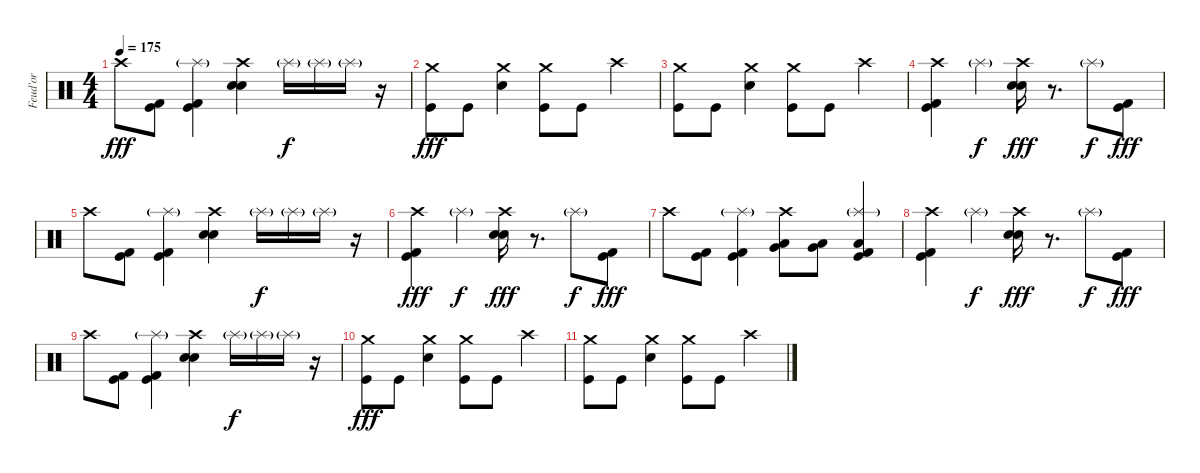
\track ("Feud'or" "Feud'or") {instrument percussion}
\staff {score}
\articulation defaults
\ts (4 4)
\tempo 175
\clef neutral
\ks c "Crash high (hit)".8{dy fff}
("Kick (hit) 2" "Kick (hit)").8 ("Splash (hit)"{g} "Kick (hit) 2" "Kick (hit)").4 ("Crash high (hit)" "Electric Snare (hit)" "Snare (hit) 2").4 "Splash (hit)"{g}.16{dy f} "Splash (hit)"{g}.16 "Splash (hit)"{g}.16 r.16 |
("Crash medium (hit)" "Kick (hit)").8{dy fff} "Kick (hit)".8 ("Crash medium (hit)" "Snare (hit) 2").4 ("Crash medium (hit)" "Kick (hit)").8 "Kick (hit)".8 "Crash high (hit)".4 |
("Crash medium (hit)" "Kick (hit)").8 "Kick (hit)".8 ("Crash medium (hit)" "Snare (hit) 2").4 ("Crash medium (hit)" "Kick (hit)").8 "Kick (hit)".8 "Crash high (hit)".4 |
("Crash high (hit)" "Kick (hit) 2" "Kick (hit)").4 "Splash (hit)"{g}.4{dy f} ("Crash high (hit)" "Electric Snare (hit)" "Snare (hit) 2").16{dy fff} r.8{d} "Splash (hit)"{g}.8{dy f} ("Kick (hit) 2" "Kick (hit)").8{dy fff} |
"Crash high (hit)".8 ("Kick (hit) 2" "Kick (hit)").8 ("Splash (hit)"{g} "Kick (hit) 2" "Kick (hit)").4 ("Crash high (hit)" "Electric Snare (hit)" "Snare (hit) 2").4 "Splash (hit)"{g}.16{dy f} "Splash (hit)"{g}.16 "Splash (hit)"{g}.16 r.16 |
("Crash high (hit)" "Kick (hit) 2" "Kick (hit)").4{dy fff} "Splash (hit)"{g}.4{dy f} ("Crash high (hit)" "Electric Snare (hit)" "Snare (hit) 2").16{dy fff} r.8{d} "Splash (hit)"{g}.8{dy f} ("Kick (hit) 2" "Kick (hit)").8{dy fff} |
"Crash high (hit)".8 ("Kick (hit) 2" "Kick (hit)").8 ("Splash (hit)"{g} "Kick (hit) 2" "Kick (hit)").4 ("Crash high (hit)" "Low Tom (hit)" "Very Low Tom (hit)").8 ("Low Tom (hit)" "Very Low Tom (hit)").8 ("Splash (hit)"{g} "Low Floor Tom (hit)" "Kick (hit) 2" "Kick (hit)").4 |
("Crash high (hit)" "Kick (hit) 2" "Kick (hit)").4 "Splash (hit)"{g}.4{dy f} ("Crash high (hit)" "Electric Snare (hit)" "Snare (hit) 2").16{dy fff} r.8{d} "Splash (hit)"{g}.8{dy f} ("Kick (hit) 2" "Kick (hit)").8{dy fff} |
"Crash high (hit)".8 ("Kick (hit) 2" "Kick (hit)").8 ("Splash (hit)"{g} "Kick (hit) 2" "Kick (hit)").4 ("Crash high (hit)" "Electric Snare (hit)" "Snare (hit) 2").4 "Splash (hit)"{g}.16{dy f} "Splash (hit)"{g}.16 "Splash (hit)"{g}.16 r.16 |
("Crash medium (hit)" "Kick (hit)").8{dy fff} "Kick (hit)".8 ("Crash medium (hit)" "Snare (hit) 2").4 ("Crash medium (hit)" "Kick (hit)").8 "Kick (hit)".8 "Crash high (hit)".4 |
("Crash medium (hit)" "Kick (hit)").8 "Kick (hit)".8 ("Crash medium (hit)" "Snare (hit) 2").4 ("Crash medium (hit)" "Kick (hit)").8 "Kick (hit)".8 "Crash high (hit)".4
